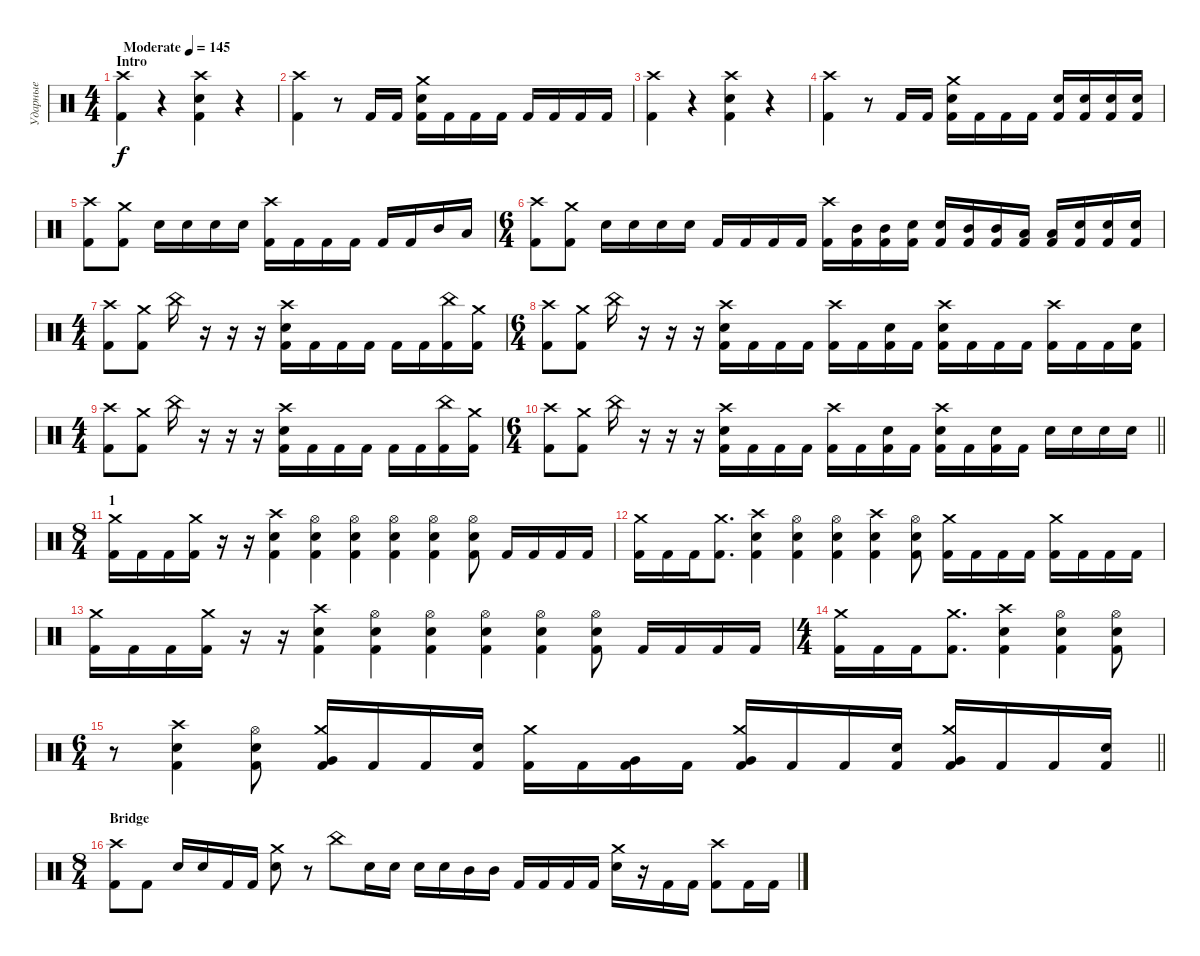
\track ("Ударные" "Ударные") {instrument percussion}
\staff {score}
\articulation defaults
\ts (4 4)
\section ("" "Intro")
\tempo (145 "Moderate")
\clef neutral
\ks c
("Crash high (hit)" "Kick (hit) 2").4{dy f} r.4{volume 0} ("Crash high (hit)" "Electric Snare (hit)" "Kick (hit) 2").4{volume 16} r.4{volume 0} |
("Crash high (hit)" "Kick (hit) 2").4{volume 16} r.8{volume 0} "Kick (hit) 2".16{volume 16} "Kick (hit) 2".16 ("Crash medium (hit)" "Electric Snare (hit)" "Kick (hit) 2").16 "Kick (hit) 2".16 "Kick (hit) 2".16 "Kick (hit) 2".16 "Kick (hit) 2".16 "Kick (hit) 2".16 "Kick (hit) 2".16 "Kick (hit) 2".16 |
("Crash high (hit)" "Kick (hit) 2").4 r.4{volume 0} ("Crash high (hit)" "Electric Snare (hit)" "Kick (hit) 2").4{volume 16} r.4{volume 0} |
("Crash high (hit)" "Kick (hit) 2").4{volume 16} r.8{volume 0} "Kick (hit) 2".16{volume 16} "Kick (hit) 2".16 ("Crash medium (hit)" "Electric Snare (hit)" "Kick (hit) 2").16 "Kick (hit) 2".16 "Kick (hit) 2".16 "Kick (hit) 2".16 ("Electric Snare (hit)" "Kick (hit) 2").16 ("Electric Snare (hit)" "Kick (hit) 2").16 ("Electric Snare (hit)" "Kick (hit) 2").16 ("Electric Snare (hit)" "Kick (hit) 2").16 |
("Crash high (hit)" "Kick (hit) 2").8 ("Crash medium (hit)" "Kick (hit) 2").8 "Electric Snare (hit)".16 "Electric Snare (hit)".16 "Electric Snare (hit)".16 "Electric Snare (hit)".16 ("Crash high (hit)" "Kick (hit) 2").16 "Kick (hit) 2".16 "Kick (hit) 2".16 "Kick (hit) 2".16 "Kick (hit) 2".16 "Kick (hit) 2".16 "Mid Tom (hit)".16 "Low Tom (hit)".16 |
\ts (6 4)
("Crash high (hit)" "Kick (hit) 2").8 ("Crash medium (hit)" "Kick (hit) 2").8 "Electric Snare (hit)".16 "Electric Snare (hit)".16 "Electric Snare (hit)".16 "Electric Snare (hit)".16 "Kick (hit) 2".16 "Kick (hit) 2".16 "Kick (hit) 2".16 "Kick (hit) 2".16 ("Crash high (hit)" "Kick (hit) 2").16 ("Mid Tom (hit)" "Kick (hit) 2").16 ("Mid Tom (hit)" "Kick (hit) 2").16 ("Electric Snare (hit)" "Kick (hit) 2").16 ("Electric Snare (hit)" "Kick (hit) 2").16 ("Mid Tom (hit)" "Kick (hit) 2").16 ("Mid Tom (hit)" "Kick (hit) 2").16 ("Low Tom (hit)" "Kick (hit) 2").16 ("Low Tom (hit)" "Kick (hit) 2").16 ("Electric Snare (hit)" "Kick (hit) 2").16 ("Electric Snare (hit)" "Kick (hit) 2").16 ("Electric Snare (hit)" "Kick (hit) 2").16 |
\ts (4 4)
("Crash high (hit)" "Kick (hit) 2").8 ("Crash medium (hit)" "Kick (hit) 2").8 "China (hit)".16 r.16 r.16 r.16 ("Crash high (hit)" "Electric Snare (hit)" "Kick (hit) 2").16 "Kick (hit) 2".16 "Kick (hit) 2".16 "Kick (hit) 2".16 "Kick (hit) 2".16 "Kick (hit) 2".16 ("China (hit)" "Kick (hit) 2").16 ("Crash medium (hit)" "Kick (hit) 2").16 |
\ts (6 4)
("Crash high (hit)" "Kick (hit) 2").8 ("Crash medium (hit)" "Kick (hit) 2").8 "China (hit)".16 r.16 r.16 r.16 ("Crash high (hit)" "Electric Snare (hit)" "Kick (hit) 2").16 "Kick (hit) 2".16 "Kick (hit) 2".16 "Kick (hit) 2".16 ("Crash high (hit)" "Kick (hit) 2").16 "Kick (hit) 2".16 ("Electric Snare (hit)" "Kick (hit) 2").16 "Kick (hit) 2".16 ("Crash high (hit)" "Electric Snare (hit)" "Kick (hit) 2").16 "Kick (hit) 2".16 "Kick (hit) 2".16 "Kick (hit) 2".16 ("Crash high (hit)" "Kick (hit) 2").16 "Kick (hit) 2".16 "Kick (hit) 2".16 ("Electric Snare (hit)" "Kick (hit) 2").16 |
\ts (4 4)
("Crash high (hit)" "Kick (hit) 2").8 ("Crash medium (hit)" "Kick (hit) 2").8 "China (hit)".16 r.16 r.16 r.16 ("Crash high (hit)" "Electric Snare (hit)" "Kick (hit) 2").16 "Kick (hit) 2".16 "Kick (hit) 2".16 "Kick (hit) 2".16 "Kick (hit) 2".16 "Kick (hit) 2".16 ("China (hit)" "Kick (hit) 2").16 ("Crash medium (hit)" "Kick (hit) 2").16 |
\ts (6 4)
\barLineRight lightlight
("Crash high (hit)" "Kick (hit) 2").8 ("Crash medium (hit)" "Kick (hit) 2").8 "China (hit)".16 r.16 r.16 r.16 ("Crash high (hit)" "Electric Snare (hit)" "Kick (hit) 2").16 "Kick (hit) 2".16 "Kick (hit) 2".16 "Kick (hit) 2".16 ("Crash high (hit)" "Kick (hit) 2").16 "Kick (hit) 2".16 ("Electric Snare (hit)" "Kick (hit) 2").16 "Kick (hit) 2".16 ("Crash high (hit)" "Electric Snare (hit)" "Kick (hit) 2").16 "Kick (hit) 2".16 ("Electric Snare (hit)" "Kick (hit) 2").16 "Kick (hit) 2".16 "Electric Snare (hit)".16 "Electric Snare (hit)".16 "Electric Snare (hit)".16 "Electric Snare (hit)".16 |
\ts (8 4)
\section ("" "1")
("Crash medium (hit)" "Kick (hit) 2").16 "Kick (hit) 2".16 "Kick (hit) 2".16 ("Crash medium (hit)" "Kick (hit) 2").16 r.16 r.16 ("Crash high (hit)" "Electric Snare (hit)" "Kick (hit) 2").4 ("Hi-Hat (open)" "Electric Snare (hit)" "Kick (hit) 2").4 ("Hi-Hat (open)" "Electric Snare (hit)" "Kick (hit) 2").4 ("Hi-Hat (open)" "Electric Snare (hit)" "Kick (hit) 2").4 ("Hi-Hat (open)" "Electric Snare (hit)" "Kick (hit) 2").4 ("Hi-Hat (open)" "Electric Snare (hit)" "Kick (hit) 2").8 "Kick (hit) 2".16 "Kick (hit) 2".16 "Kick (hit) 2".16 "Kick (hit) 2".16 |
("Crash medium (hit)" "Kick (hit) 2").16 "Kick (hit) 2".16 "Kick (hit) 2".16 ("Crash medium (hit)" "Kick (hit) 2").8{d} ("Crash high (hit)" "Electric Snare (hit)" "Kick (hit) 2").4 ("Hi-Hat (open)" "Electric Snare (hit)" "Kick (hit) 2").4 ("Hi-Hat (open)" "Electric Snare (hit)" "Kick (hit) 2").4 ("Crash high (hit)" "Electric Snare (hit)" "Kick (hit) 2").4 ("Hi-Hat (open)" "Electric Snare (hit)" "Kick (hit) 2").8 ("Crash medium (hit)" "Kick (hit) 2").16 "Kick (hit) 2".16 "Kick (hit) 2".16 "Kick (hit) 2".16 ("Crash medium (hit)" "Kick (hit) 2").16 "Kick (hit) 2".16 "Kick (hit) 2".16 "Kick (hit) 2".16 |
("Crash medium (hit)" "Kick (hit) 2").16 "Kick (hit) 2".16 "Kick (hit) 2".16 ("Crash medium (hit)" "Kick (hit) 2").16 r.16 r.16 ("Crash high (hit)" "Electric Snare (hit)" "Kick (hit) 2").4 ("Hi-Hat (open)" "Electric Snare (hit)" "Kick (hit) 2").4 ("Hi-Hat (open)" "Electric Snare (hit)" "Kick (hit) 2").4 ("Hi-Hat (open)" "Electric Snare (hit)" "Kick (hit) 2").4 ("Hi-Hat (open)" "Electric Snare (hit)" "Kick (hit) 2").4 ("Hi-Hat (open)" "Electric Snare (hit)" "Kick (hit) 2").8 "Kick (hit) 2".16 "Kick (hit) 2".16 "Kick (hit) 2".16 "Kick (hit) 2".16 |
\ts (4 4)
("Crash medium (hit)" "Kick (hit) 2").16 "Kick (hit) 2".16 "Kick (hit) 2".16 ("Crash medium (hit)" "Kick (hit) 2").8{d} ("Crash high (hit)" "Electric Snare (hit)" "Kick (hit) 2").4 ("Hi-Hat (open)" "Electric Snare (hit)" "Kick (hit) 2").4 ("Hi-Hat (open)" "Electric Snare (hit)" "Kick (hit) 2").8 |
\ts (6 4)
\barLineRight lightlight
r.8 ("Crash high (hit)" "Electric Snare (hit)" "Kick (hit) 2").4 ("Hi-Hat (open)" "Electric Snare (hit)" "Kick (hit) 2").8 ("Crash medium (hit)" "Very Low Tom (hit)" "Kick (hit) 2").16 "Kick (hit) 2".16 "Kick (hit) 2".16 ("Electric Snare (hit)" "Kick (hit) 2").16 ("Crash medium (hit)" "Kick (hit) 2").16 "Kick (hit) 2".16 ("Very Low Tom (hit)" "Kick (hit) 2").16 "Kick (hit) 2".16 ("Crash medium (hit)" "Very Low Tom (hit)" "Kick (hit) 2").16 "Kick (hit) 2".16 "Kick (hit) 2".16 ("Electric Snare (hit)" "Kick (hit) 2").16 ("Crash medium (hit)" "Very Low Tom (hit)" "Kick (hit) 2").16 "Kick (hit) 2".16 "Kick (hit) 2".16 ("Electric Snare (hit)" "Kick (hit) 2").16 |
\ts (8 4)
\section ("" "Bridge")
("Crash high (hit)" "Kick (hit) 2").8 "Kick (hit) 2".8 "Electric Snare (hit)".16 "Electric Snare (hit)".16 "Kick (hit) 2".16 "Kick (hit) 2".16 ("Crash medium (hit)" "Electric Snare (hit)").8 r.8 "China (hit)".8 "Electric Snare (hit)".16 "Electric Snare (hit)".16 "Electric Snare (hit)".16 "Electric Snare (hit)".16 "Mid Tom (hit)".16 "Mid Tom (hit)".16 "Kick (hit) 2".16 "Kick (hit) 2".16 "Kick (hit) 2".16 "Kick (hit) 2".16 ("Crash medium (hit)" "Electric Snare (hit)").16 r.16 "Kick (hit) 2".16 "Kick (hit) 2".16 ("Crash high (hit)" "Kick (hit) 2").8 "Kick (hit) 2".16 "Kick (hit) 2".16
